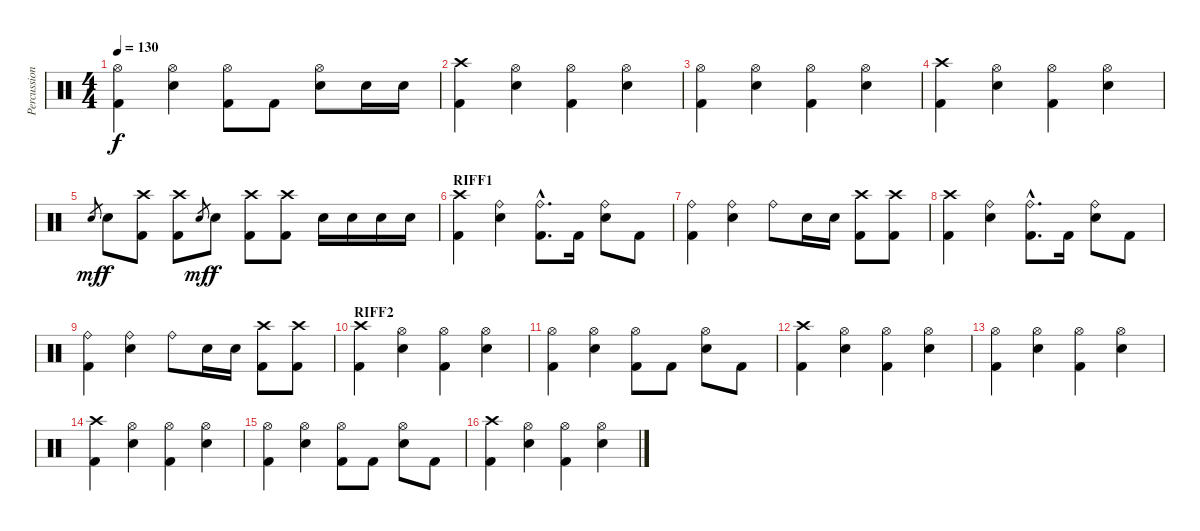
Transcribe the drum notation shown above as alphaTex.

\track ("Percussion" "Percussion") {instrument percussion}
\staff {score}
\articulation defaults
\ts (4 4)
\tempo 130
\clef neutral
\ks c
("Hi-Hat (open)" "Kick (hit) 2").4{dy f} ("Hi-Hat (open)" "Electric Snare (hit)").4 ("Hi-Hat (open)" "Kick (hit) 2").8 "Kick (hit) 2".8 ("Hi-Hat (open)" "Electric Snare (hit)").8 "Electric Snare (hit)".16 "Electric Snare (hit)".16 |
("Crash high (hit)" "Kick (hit) 2").4 ("Hi-Hat (open)" "Electric Snare (hit)").4 ("Hi-Hat (open)" "Kick (hit) 2").4 ("Hi-Hat (open)" "Electric Snare (hit)").4 |
("Hi-Hat (open)" "Kick (hit) 2").4 ("Hi-Hat (open)" "Electric Snare (hit)").4 ("Hi-Hat (open)" "Kick (hit) 2").4 ("Hi-Hat (open)" "Electric Snare (hit)").4 |
("Crash high (hit)" "Kick (hit) 2").4 ("Hi-Hat (open)" "Electric Snare (hit)").4 ("Hi-Hat (open)" "Kick (hit) 2").4 ("Hi-Hat (open)" "Electric Snare (hit)").4 |
"Electric Snare (hit)".8{gr dy mf} "Electric Snare (hit)".8{dy f} ("Crash high (hit)" "Kick (hit) 2").8 ("Crash high (hit)" "Kick (hit) 2").8 "Electric Snare (hit)".8{gr dy mf} "Electric Snare (hit)".8{dy f} ("Crash high (hit)" "Kick (hit) 2").8 ("Crash high (hit)" "Kick (hit) 2").8 "Electric Snare (hit)".16 "Electric Snare (hit)".16 "Electric Snare (hit)".16 "Electric Snare (hit)".16 |
\section ("" "RIFF1")
("Crash high (hit)" "Kick (hit) 2").4 ("Ride (bell)" "Electric Snare (hit)").4 ("Ride (bell)"{hac} "Kick (hit) 2"{hac}).8{d} "Kick (hit) 2".16 ("Ride (bell)" "Electric Snare (hit)").8 "Kick (hit) 2".8 |
("Ride (bell)" "Kick (hit) 2").4 ("Ride (bell)" "Electric Snare (hit)").4 "Ride (bell)".8 "Electric Snare (hit)".16 "Electric Snare (hit)".16 ("Crash high (hit)" "Kick (hit) 2").8 ("Crash high (hit)" "Kick (hit) 2").8 |
("Crash high (hit)" "Kick (hit) 2").4 ("Ride (bell)" "Electric Snare (hit)").4 ("Ride (bell)"{hac} "Kick (hit) 2"{hac}).8{d} "Kick (hit) 2".16 ("Ride (bell)" "Electric Snare (hit)").8 "Kick (hit) 2".8 |
("Ride (bell)" "Kick (hit) 2").4 ("Ride (bell)" "Electric Snare (hit)").4 "Ride (bell)".8 "Electric Snare (hit)".16 "Electric Snare (hit)".16 ("Crash high (hit)" "Kick (hit) 2").8 ("Crash high (hit)" "Kick (hit) 2").8 |
\section ("" "RIFF2")
("Crash high (hit)" "Kick (hit) 2").4 ("Hi-Hat (open)" "Electric Snare (hit)").4 ("Hi-Hat (open)" "Kick (hit) 2").4 ("Hi-Hat (open)" "Electric Snare (hit)").4 |
("Hi-Hat (open)" "Kick (hit) 2").4 ("Hi-Hat (open)" "Electric Snare (hit)").4 ("Hi-Hat (open)" "Kick (hit) 2").8 "Kick (hit) 2".8 ("Hi-Hat (open)" "Electric Snare (hit)").8 "Kick (hit) 2".8 |
("Crash high (hit)" "Kick (hit) 2").4 ("Hi-Hat (open)" "Electric Snare (hit)").4 ("Hi-Hat (open)" "Kick (hit) 2").4 ("Hi-Hat (open)" "Electric Snare (hit)").4 |
("Hi-Hat (open)" "Kick (hit) 2").4 ("Hi-Hat (open)" "Electric Snare (hit)").4 ("Hi-Hat (open)" "Kick (hit) 2").4 ("Hi-Hat (open)" "Electric Snare (hit)").4 |
("Crash high (hit)" "Kick (hit) 2").4 ("Hi-Hat (open)" "Electric Snare (hit)").4 ("Hi-Hat (open)" "Kick (hit) 2").4 ("Hi-Hat (open)" "Electric Snare (hit)").4 |
("Hi-Hat (open)" "Kick (hit) 2").4 ("Hi-Hat (open)" "Electric Snare (hit)").4 ("Hi-Hat (open)" "Kick (hit) 2").8 "Kick (hit) 2".8 ("Hi-Hat (open)" "Electric Snare (hit)").8 "Kick (hit) 2".8 |
("Crash high (hit)" "Kick (hit) 2").4 ("Hi-Hat (open)" "Electric Snare (hit)").4 ("Hi-Hat (open)" "Kick (hit) 2").4 ("Hi-Hat (open)" "Electric Snare (hit)").4
